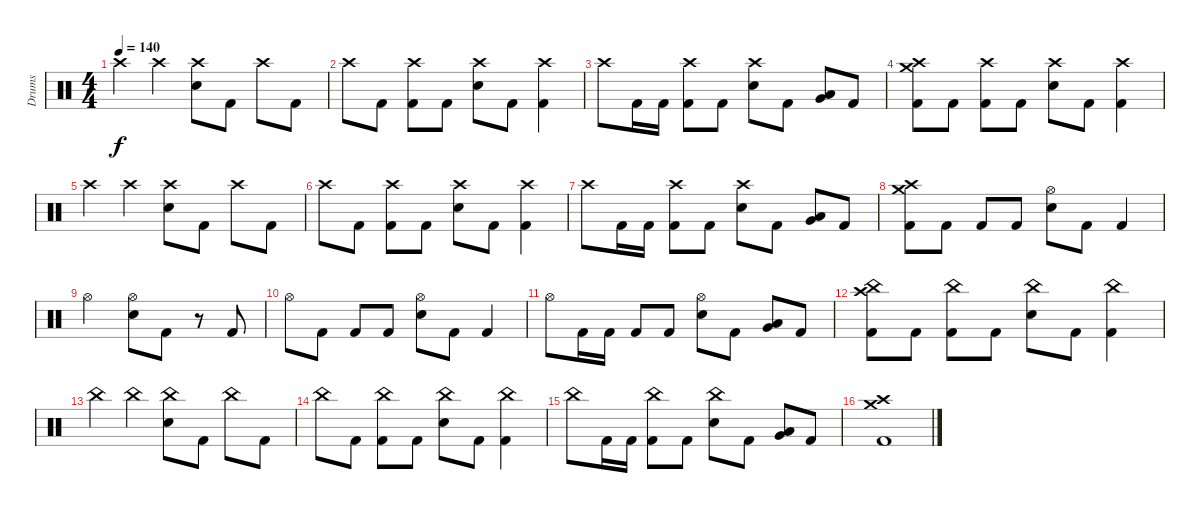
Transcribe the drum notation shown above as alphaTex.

\track ("Drums" "Drums") {instrument percussion}
\staff {score}
\articulation defaults
\ts (4 4)
\tempo 140
\clef neutral
\ks c "Crash high (hit)".4{dy f} "Crash high (hit)".4
("Crash high (hit)" "Electric Snare (hit)").8 "Kick (hit) 2".8 "Crash high (hit)".8 "Kick (hit) 2".8 |
"Crash high (hit)".8 "Kick (hit) 2".8 ("Crash high (hit)" "Kick (hit) 2").8 "Kick (hit) 2".8 ("Crash high (hit)" "Electric Snare (hit)").8 "Kick (hit) 2".8 ("Crash high (hit)" "Kick (hit) 2").4 |
"Crash high (hit)".8 "Kick (hit) 2".16 "Kick (hit) 2".16 ("Crash high (hit)" "Kick (hit) 2").8 "Kick (hit) 2".8 ("Crash high (hit)" "Electric Snare (hit)").8 "Kick (hit) 2".8 ("Very Low Tom (hit)" "Low Tom (hit)").8 "Kick (hit) 2".8 |
("Crash high (hit)" "Crash medium (hit)" "Kick (hit) 2").8 "Kick (hit) 2".8 ("Crash high (hit)" "Kick (hit) 2").8 "Kick (hit) 2".8 ("Crash high (hit)" "Electric Snare (hit)").8 "Kick (hit) 2".8 ("Crash high (hit)" "Kick (hit) 2").4 |
"Crash high (hit)".4 "Crash high (hit)".4 ("Crash high (hit)" "Electric Snare (hit)").8 "Kick (hit) 2".8 "Crash high (hit)".8 "Kick (hit) 2".8 |
"Crash high (hit)".8 "Kick (hit) 2".8 ("Crash high (hit)" "Kick (hit) 2").8 "Kick (hit) 2".8 ("Crash high (hit)" "Electric Snare (hit)").8 "Kick (hit) 2".8 ("Crash high (hit)" "Kick (hit) 2").4 |
"Crash high (hit)".8 "Kick (hit) 2".16 "Kick (hit) 2".16 ("Crash high (hit)" "Kick (hit) 2").8 "Kick (hit) 2".8 ("Crash high (hit)" "Electric Snare (hit)").8 "Kick (hit) 2".8 ("Very Low Tom (hit)" "Low Tom (hit)").8 "Kick (hit) 2".8 |
("Crash high (hit)" "Crash medium (hit)" "Kick (hit) 2").8 "Kick (hit) 2".8 "Kick (hit) 2".8 "Kick (hit) 2".8 ("Hi-Hat (open)" "Electric Snare (hit)").8 "Kick (hit) 2".8 "Kick (hit) 2".4 |
"Hi-Hat (open)".2 ("Hi-Hat (open)" "Electric Snare (hit)").8 "Kick (hit) 2".8 r.8 "Kick (hit) 2".8 |
"Hi-Hat (open)".8 "Kick (hit) 2".8 "Kick (hit) 2".8 "Kick (hit) 2".8 ("Hi-Hat (open)" "Electric Snare (hit)").8 "Kick (hit) 2".8 "Kick (hit) 2".4 |
"Hi-Hat (open)".8 "Kick (hit) 2".16 "Kick (hit) 2".16 "Kick (hit) 2".8 "Kick (hit) 2".8 ("Hi-Hat (open)" "Electric Snare (hit)").8 "Kick (hit) 2".8 ("Very Low Tom (hit)" "Low Tom (hit)").8 "Kick (hit) 2".8 |
("Crash high (hit)" "China (hit)" "Kick (hit) 2").8 "Kick (hit) 2".8 ("China (hit)" "Kick (hit) 2").8 "Kick (hit) 2".8 ("China (hit)" "Electric Snare (hit)").8 "Kick (hit) 2".8 ("China (hit)" "Kick (hit) 2").4 |
"China (hit)".4 "China (hit)".4 ("China (hit)" "Electric Snare (hit)").8 "Kick (hit) 2".8 "China (hit)".8 "Kick (hit) 2".8 |
"China (hit)".8 "Kick (hit) 2".8 ("China (hit)" "Kick (hit) 2").8 "Kick (hit) 2".8 ("China (hit)" "Electric Snare (hit)").8 "Kick (hit) 2".8 ("China (hit)" "Kick (hit) 2").4 |
"China (hit)".8 "Kick (hit) 2".16 "Kick (hit) 2".16 ("China (hit)" "Kick (hit) 2").8 "Kick (hit) 2".8 ("China (hit)" "Electric Snare (hit)").8 "Kick (hit) 2".8 ("Very Low Tom (hit)" "Low Tom (hit)").8 "Kick (hit) 2".8 |
("Crash high (hit)" "Crash medium (hit)" "Kick (hit) 2").1
